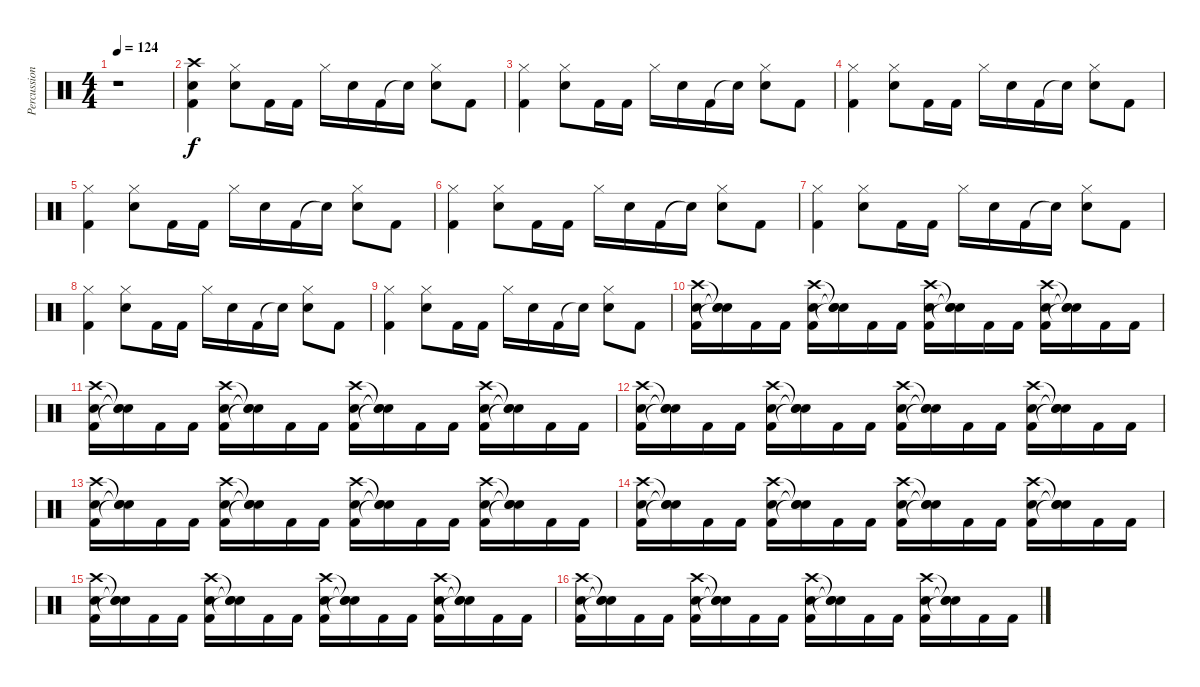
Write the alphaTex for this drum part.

\track ("Percussions" "Percussion") {instrument percussion}
\staff {score}
\articulation defaults
\ts (4 4)
\tempo 124
\clef neutral
\ks c
r.1{dy f} |
("Kick (hit) 2" "Electric Snare (hit)" "Crash high (hit)").4 ("Electric Snare (hit)" "Hi-Hat (closed)").8 "Kick (hit) 2".16 "Kick (hit) 2".16 "Hi-Hat (closed)".16 "Electric Snare (hit)".16 "Kick (hit) 2".16 "Snare (hit)"{t}.16 ("Electric Snare (hit)" "Hi-Hat (closed)").8 "Kick (hit) 2".8 |
("Kick (hit) 2" "Hi-Hat (closed)").4 ("Electric Snare (hit)" "Hi-Hat (closed)").8 "Kick (hit) 2".16 "Kick (hit) 2".16 "Hi-Hat (closed)".16 "Electric Snare (hit)".16 "Kick (hit) 2".16 "Snare (hit)"{t}.16 ("Electric Snare (hit)" "Hi-Hat (closed)").8 "Kick (hit) 2".8 |
("Kick (hit) 2" "Hi-Hat (closed)").4 ("Electric Snare (hit)" "Hi-Hat (closed)").8 "Kick (hit) 2".16 "Kick (hit) 2".16 "Hi-Hat (closed)".16 "Electric Snare (hit)".16 "Kick (hit) 2".16 "Snare (hit)"{t}.16 ("Electric Snare (hit)" "Hi-Hat (closed)").8 "Kick (hit) 2".8 |
("Kick (hit) 2" "Hi-Hat (closed)").4 ("Electric Snare (hit)" "Hi-Hat (closed)").8 "Kick (hit) 2".16 "Kick (hit) 2".16 "Hi-Hat (closed)".16 "Electric Snare (hit)".16 "Kick (hit) 2".16 "Snare (hit)"{t}.16 ("Electric Snare (hit)" "Hi-Hat (closed)").8 "Kick (hit) 2".8 |
("Kick (hit) 2" "Hi-Hat (closed)").4 ("Electric Snare (hit)" "Hi-Hat (closed)").8 "Kick (hit) 2".16 "Kick (hit) 2".16 "Hi-Hat (closed)".16 "Electric Snare (hit)".16 "Kick (hit) 2".16 "Snare (hit)"{t}.16 ("Electric Snare (hit)" "Hi-Hat (closed)").8 "Kick (hit) 2".8 |
("Kick (hit) 2" "Hi-Hat (closed)").4 ("Electric Snare (hit)" "Hi-Hat (closed)").8 "Kick (hit) 2".16 "Kick (hit) 2".16 "Hi-Hat (closed)".16 "Electric Snare (hit)".16 "Kick (hit) 2".16 "Snare (hit)"{t}.16 ("Electric Snare (hit)" "Hi-Hat (closed)").8 "Kick (hit) 2".8 |
("Kick (hit) 2" "Hi-Hat (closed)").4 ("Electric Snare (hit)" "Hi-Hat (closed)").8 "Kick (hit) 2".16 "Kick (hit) 2".16 "Hi-Hat (closed)".16 "Electric Snare (hit)".16 "Kick (hit) 2".16 "Snare (hit)"{t}.16 ("Electric Snare (hit)" "Hi-Hat (closed)").8 "Kick (hit) 2".8 |
("Kick (hit) 2" "Hi-Hat (closed)").4 ("Electric Snare (hit)" "Hi-Hat (closed)").8 "Kick (hit) 2".16 "Kick (hit) 2".16 "Hi-Hat (closed)".16 "Electric Snare (hit)".16 "Kick (hit) 2".16 "Snare (hit)"{t}.16 ("Electric Snare (hit)" "Hi-Hat (closed)").8 "Kick (hit) 2".8 |
("Kick (hit) 2" "Electric Snare (hit)" "Crash high (hit)").16 ("Snare (hit)"{t} "Snare (hit)"{t} "Snare (hit)"{t}).16 "Kick (hit) 2".16 "Kick (hit) 2".16 ("Kick (hit) 2" "Electric Snare (hit)" "Crash high (hit)").16 ("Snare (hit)"{t} "Snare (hit)"{t} "Snare (hit)"{t}).16 "Kick (hit) 2".16 "Kick (hit) 2".16 ("Kick (hit) 2" "Electric Snare (hit)" "Crash high (hit)").16 ("Snare (hit)"{t} "Snare (hit)"{t} "Snare (hit)"{t}).16 "Kick (hit) 2".16 "Kick (hit) 2".16 ("Kick (hit) 2" "Electric Snare (hit)" "Crash high (hit)").16 ("Snare (hit)"{t} "Snare (hit)"{t} "Snare (hit)"{t}).16 "Kick (hit) 2".16 "Kick (hit) 2".16 |
("Kick (hit) 2" "Electric Snare (hit)" "Crash high (hit)").16 ("Snare (hit)"{t} "Snare (hit)"{t} "Snare (hit)"{t}).16 "Kick (hit) 2".16 "Kick (hit) 2".16 ("Kick (hit) 2" "Electric Snare (hit)" "Crash high (hit)").16 ("Snare (hit)"{t} "Snare (hit)"{t} "Snare (hit)"{t}).16 "Kick (hit) 2".16 "Kick (hit) 2".16 ("Kick (hit) 2" "Electric Snare (hit)" "Crash high (hit)").16 ("Snare (hit)"{t} "Snare (hit)"{t} "Snare (hit)"{t}).16 "Kick (hit) 2".16 "Kick (hit) 2".16 ("Kick (hit) 2" "Electric Snare (hit)" "Crash high (hit)").16 ("Snare (hit)"{t} "Snare (hit)"{t} "Snare (hit)"{t}).16 "Kick (hit) 2".16 "Kick (hit) 2".16 |
("Kick (hit) 2" "Electric Snare (hit)" "Crash high (hit)").16 ("Snare (hit)"{t} "Snare (hit)"{t} "Snare (hit)"{t}).16 "Kick (hit) 2".16 "Kick (hit) 2".16 ("Kick (hit) 2" "Electric Snare (hit)" "Crash high (hit)").16 ("Snare (hit)"{t} "Snare (hit)"{t} "Snare (hit)"{t}).16 "Kick (hit) 2".16 "Kick (hit) 2".16 ("Kick (hit) 2" "Electric Snare (hit)" "Crash high (hit)").16 ("Snare (hit)"{t} "Snare (hit)"{t} "Snare (hit)"{t}).16 "Kick (hit) 2".16 "Kick (hit) 2".16 ("Kick (hit) 2" "Electric Snare (hit)" "Crash high (hit)").16 ("Snare (hit)"{t} "Snare (hit)"{t} "Snare (hit)"{t}).16 "Kick (hit) 2".16 "Kick (hit) 2".16 |
("Kick (hit) 2" "Electric Snare (hit)" "Crash high (hit)").16 ("Snare (hit)"{t} "Snare (hit)"{t} "Snare (hit)"{t}).16 "Kick (hit) 2".16 "Kick (hit) 2".16 ("Kick (hit) 2" "Electric Snare (hit)" "Crash high (hit)").16 ("Snare (hit)"{t} "Snare (hit)"{t} "Snare (hit)"{t}).16 "Kick (hit) 2".16 "Kick (hit) 2".16 ("Kick (hit) 2" "Electric Snare (hit)" "Crash high (hit)").16 ("Snare (hit)"{t} "Snare (hit)"{t} "Snare (hit)"{t}).16 "Kick (hit) 2".16 "Kick (hit) 2".16 ("Kick (hit) 2" "Electric Snare (hit)" "Crash high (hit)").16 ("Snare (hit)"{t} "Snare (hit)"{t} "Snare (hit)"{t}).16 "Kick (hit) 2".16 "Kick (hit) 2".16 |
("Kick (hit) 2" "Electric Snare (hit)" "Crash high (hit)").16 ("Snare (hit)"{t} "Snare (hit)"{t} "Snare (hit)"{t}).16 "Kick (hit) 2".16 "Kick (hit) 2".16 ("Kick (hit) 2" "Electric Snare (hit)" "Crash high (hit)").16 ("Snare (hit)"{t} "Snare (hit)"{t} "Snare (hit)"{t}).16 "Kick (hit) 2".16 "Kick (hit) 2".16 ("Kick (hit) 2" "Electric Snare (hit)" "Crash high (hit)").16 ("Snare (hit)"{t} "Snare (hit)"{t} "Snare (hit)"{t}).16 "Kick (hit) 2".16 "Kick (hit) 2".16 ("Kick (hit) 2" "Electric Snare (hit)" "Crash high (hit)").16 ("Snare (hit)"{t} "Snare (hit)"{t} "Snare (hit)"{t}).16 "Kick (hit) 2".16 "Kick (hit) 2".16 |
("Kick (hit) 2" "Electric Snare (hit)" "Crash high (hit)").16 ("Snare (hit)"{t} "Snare (hit)"{t} "Snare (hit)"{t}).16 "Kick (hit) 2".16 "Kick (hit) 2".16 ("Kick (hit) 2" "Electric Snare (hit)" "Crash high (hit)").16 ("Snare (hit)"{t} "Snare (hit)"{t} "Snare (hit)"{t}).16 "Kick (hit) 2".16 "Kick (hit) 2".16 ("Kick (hit) 2" "Electric Snare (hit)" "Crash high (hit)").16 ("Snare (hit)"{t} "Snare (hit)"{t} "Snare (hit)"{t}).16 "Kick (hit) 2".16 "Kick (hit) 2".16 ("Kick (hit) 2" "Electric Snare (hit)" "Crash high (hit)").16 ("Snare (hit)"{t} "Snare (hit)"{t} "Snare (hit)"{t}).16 "Kick (hit) 2".16 "Kick (hit) 2".16 |
("Kick (hit) 2" "Electric Snare (hit)" "Crash high (hit)").16 ("Snare (hit)"{t} "Snare (hit)"{t} "Snare (hit)"{t}).16 "Kick (hit) 2".16 "Kick (hit) 2".16 ("Kick (hit) 2" "Electric Snare (hit)" "Crash high (hit)").16 ("Snare (hit)"{t} "Snare (hit)"{t} "Snare (hit)"{t}).16 "Kick (hit) 2".16 "Kick (hit) 2".16 ("Kick (hit) 2" "Electric Snare (hit)" "Crash high (hit)").16 ("Snare (hit)"{t} "Snare (hit)"{t} "Snare (hit)"{t}).16 "Kick (hit) 2".16 "Kick (hit) 2".16 ("Kick (hit) 2" "Electric Snare (hit)" "Crash high (hit)").16 ("Snare (hit)"{t} "Snare (hit)"{t} "Snare (hit)"{t}).16 "Kick (hit) 2".16 "Kick (hit) 2".16
